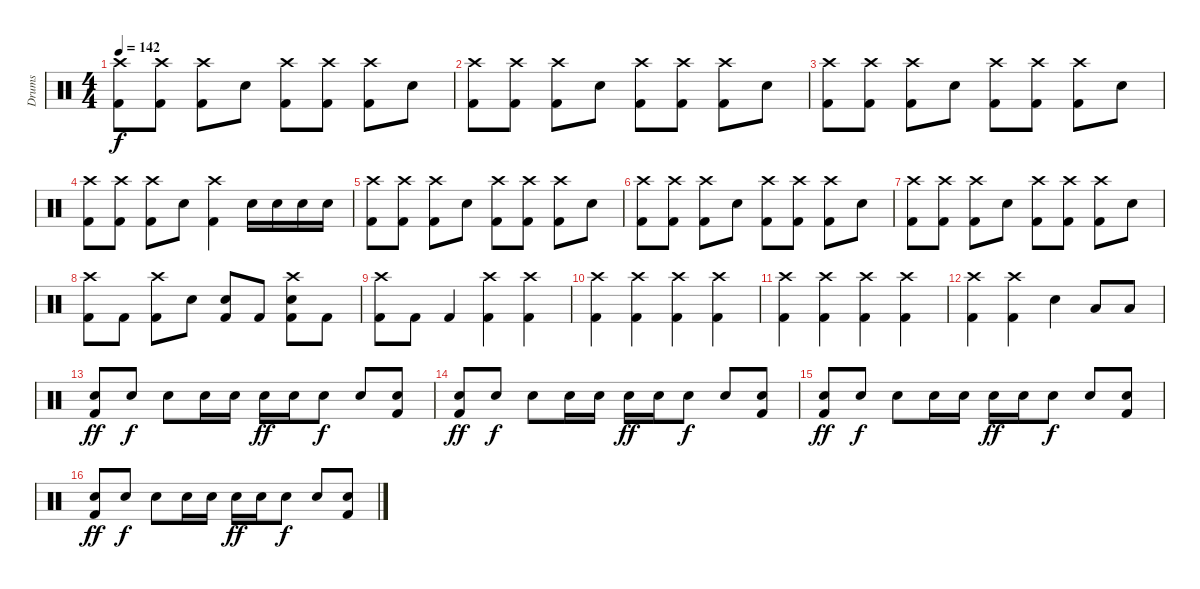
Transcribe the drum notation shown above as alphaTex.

\track ("Drums" "Drums") {instrument percussion}
\staff {score}
\articulation defaults
\ts (4 4)
\tempo 142
\clef neutral
\ks c
("Crash high (hit)" "Kick (hit) 2").8{dy f} ("Crash high (hit)" "Kick (hit) 2").8 ("Crash high (hit)" "Kick (hit) 2").8 "Snare (hit) 2".8 ("Crash high (hit)" "Kick (hit) 2").8 ("Crash high (hit)" "Kick (hit) 2").8 ("Crash high (hit)" "Kick (hit) 2").8 "Snare (hit) 2".8 |
("Crash high (hit)" "Kick (hit) 2").8 ("Crash high (hit)" "Kick (hit) 2").8 ("Crash high (hit)" "Kick (hit) 2").8 "Snare (hit) 2".8 ("Crash high (hit)" "Kick (hit) 2").8 ("Crash high (hit)" "Kick (hit) 2").8 ("Crash high (hit)" "Kick (hit) 2").8 "Snare (hit) 2".8 |
("Crash high (hit)" "Kick (hit) 2").8 ("Crash high (hit)" "Kick (hit) 2").8 ("Crash high (hit)" "Kick (hit) 2").8 "Snare (hit) 2".8 ("Crash high (hit)" "Kick (hit) 2").8 ("Crash high (hit)" "Kick (hit) 2").8 ("Crash high (hit)" "Kick (hit) 2").8 "Snare (hit) 2".8 |
("Crash high (hit)" "Kick (hit) 2").8 ("Crash high (hit)" "Kick (hit) 2").8 ("Crash high (hit)" "Kick (hit) 2").8 "Snare (hit) 2".8 ("Crash high (hit)" "Kick (hit) 2").4 "Snare (hit) 2".16 "Snare (hit) 2".16 "Snare (hit) 2".16 "Snare (hit)".16 |
("Crash high (hit)" "Kick (hit) 2").8 ("Crash high (hit)" "Kick (hit) 2").8 ("Crash high (hit)" "Kick (hit) 2").8 "Snare (hit) 2".8 ("Crash high (hit)" "Kick (hit) 2").8 ("Crash high (hit)" "Kick (hit) 2").8 ("Crash high (hit)" "Kick (hit) 2").8 "Snare (hit) 2".8 |
("Crash high (hit)" "Kick (hit) 2").8 ("Crash high (hit)" "Kick (hit) 2").8 ("Crash high (hit)" "Kick (hit) 2").8 "Snare (hit) 2".8 ("Crash high (hit)" "Kick (hit) 2").8 ("Crash high (hit)" "Kick (hit) 2").8 ("Crash high (hit)" "Kick (hit) 2").8 "Snare (hit) 2".8 |
("Crash high (hit)" "Kick (hit) 2").8 ("Crash high (hit)" "Kick (hit) 2").8 ("Crash high (hit)" "Kick (hit) 2").8 "Snare (hit) 2".8 ("Crash high (hit)" "Kick (hit) 2").8 ("Crash high (hit)" "Kick (hit) 2").8 ("Crash high (hit)" "Kick (hit) 2").8 "Snare (hit) 2".8 |
("Crash high (hit)" "Kick (hit) 2").8 "Kick (hit) 2".8 ("Crash high (hit)" "Kick (hit) 2").8 "Snare (hit) 2".8 ("Electric Snare (hit)" "Kick (hit) 2").8 "Kick (hit) 2".8 ("Crash high (hit)" "Electric Snare (hit)" "Kick (hit) 2").8 "Kick (hit) 2".8 |
("Crash high (hit)" "Kick (hit) 2").8 "Kick (hit) 2".8 "Kick (hit) 2".4 ("Crash high (hit)" "Kick (hit) 2").4 ("Crash high (hit)" "Kick (hit) 2").4 |
("Crash high (hit)" "Kick (hit) 2").4 ("Crash high (hit)" "Kick (hit) 2").4 ("Crash high (hit)" "Kick (hit) 2").4 ("Crash high (hit)" "Kick (hit) 2").4 |
("Crash high (hit)" "Kick (hit) 2").4 ("Crash high (hit)" "Kick (hit) 2").4 ("Crash high (hit)" "Kick (hit) 2").4 ("Crash high (hit)" "Kick (hit) 2").4 |
("Crash high (hit)" "Kick (hit) 2").4 ("Crash high (hit)" "Kick (hit) 2").4 "Electric Snare (hit)".4 "Low Tom (hit)".8 "Low Floor Tom (hit)".8 |
("Snare (hit) 2" "Kick (hit) 2").8{dy ff} "Snare (hit) 2".8{dy f} "Snare (hit) 2".8 "Snare (hit) 2".16 "Snare (hit) 2".16 "Snare (hit) 2".16{dy ff} "Snare (hit) 2".16 "Snare (hit) 2".8{dy f} "Snare (hit) 2".8 ("Snare (hit) 2" "Kick (hit) 2").8 |
("Snare (hit) 2" "Kick (hit) 2").8{dy ff} "Snare (hit) 2".8{dy f} "Snare (hit) 2".8 "Snare (hit) 2".16 "Snare (hit) 2".16 "Snare (hit) 2".16{dy ff} "Snare (hit) 2".16 "Snare (hit) 2".8{dy f} "Snare (hit) 2".8 ("Snare (hit) 2" "Kick (hit) 2").8 |
("Snare (hit) 2" "Kick (hit) 2").8{dy ff} "Snare (hit) 2".8{dy f} "Snare (hit) 2".8 "Snare (hit) 2".16 "Snare (hit) 2".16 "Snare (hit) 2".16{dy ff} "Snare (hit) 2".16 "Snare (hit) 2".8{dy f} "Snare (hit) 2".8 ("Snare (hit) 2" "Kick (hit) 2").8 |
("Snare (hit) 2" "Kick (hit) 2").8{dy ff} "Snare (hit) 2".8{dy f} "Snare (hit) 2".8 "Snare (hit) 2".16 "Snare (hit) 2".16 "Snare (hit) 2".16{dy ff} "Snare (hit) 2".16 "Snare (hit) 2".8{dy f} "Snare (hit) 2".8 ("Snare (hit) 2" "Kick (hit) 2").8
